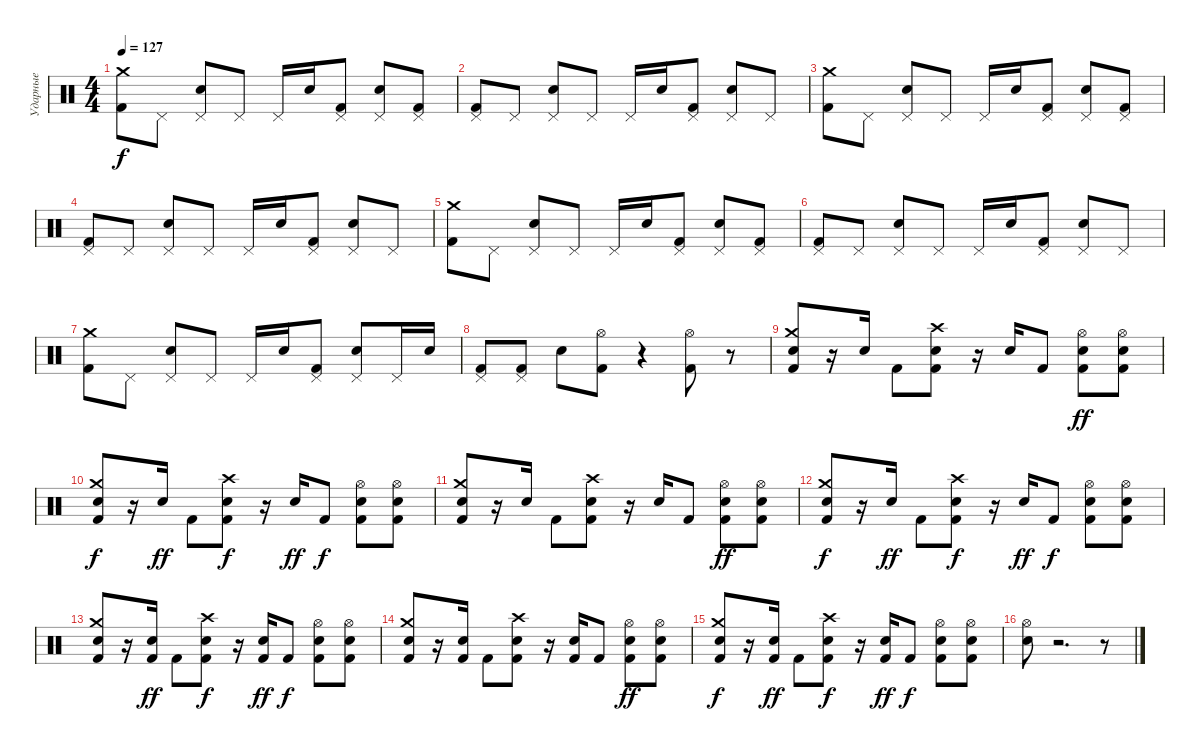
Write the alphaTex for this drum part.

\track ("Ударные" "Ударные") {instrument percussion}
\staff {score}
\articulation defaults
\ts (4 4)
\tempo 127
\clef neutral
\ks c
("Kick (hit) 2" "Crash medium (hit)").8{dy f} "Pedal Hi-Hat (hit)".8 ("Pedal Hi-Hat (hit)" "Electric Snare (hit)").8 "Pedal Hi-Hat (hit)".8 "Pedal Hi-Hat (hit)".16 "Electric Snare (hit)".16 ("Kick (hit) 2" "Pedal Hi-Hat (hit)").8 ("Electric Snare (hit)" "Pedal Hi-Hat (hit)").8 ("Kick (hit) 2" "Pedal Hi-Hat (hit)").8 |
("Kick (hit) 2" "Pedal Hi-Hat (hit)").8 "Pedal Hi-Hat (hit)".8 ("Pedal Hi-Hat (hit)" "Electric Snare (hit)").8 "Pedal Hi-Hat (hit)".8 "Pedal Hi-Hat (hit)".16 "Electric Snare (hit)".16 ("Pedal Hi-Hat (hit)" "Kick (hit) 2").8 ("Pedal Hi-Hat (hit)" "Electric Snare (hit)").8 "Pedal Hi-Hat (hit)".8 |
("Crash medium (hit)" "Kick (hit) 2").8 "Pedal Hi-Hat (hit)".8 ("Electric Snare (hit)" "Pedal Hi-Hat (hit)").8 "Pedal Hi-Hat (hit)".8 "Pedal Hi-Hat (hit)".16 "Electric Snare (hit)".16 ("Pedal Hi-Hat (hit)" "Kick (hit) 2").8 ("Pedal Hi-Hat (hit)" "Electric Snare (hit)").8 ("Pedal Hi-Hat (hit)" "Kick (hit) 2").8 |
("Pedal Hi-Hat (hit)" "Kick (hit) 2").8 "Pedal Hi-Hat (hit)".8 ("Pedal Hi-Hat (hit)" "Electric Snare (hit)").8 "Pedal Hi-Hat (hit)".8 "Pedal Hi-Hat (hit)".16 "Electric Snare (hit)".16 ("Kick (hit) 2" "Pedal Hi-Hat (hit)").8 ("Electric Snare (hit)" "Pedal Hi-Hat (hit)").8 "Pedal Hi-Hat (hit)".8 |
("Crash medium (hit)" "Kick (hit) 2").8 "Pedal Hi-Hat (hit)".8 ("Electric Snare (hit)" "Pedal Hi-Hat (hit)").8 "Pedal Hi-Hat (hit)".8 "Pedal Hi-Hat (hit)".16 "Electric Snare (hit)".16 ("Pedal Hi-Hat (hit)" "Kick (hit) 2").8 ("Pedal Hi-Hat (hit)" "Electric Snare (hit)").8 ("Pedal Hi-Hat (hit)" "Kick (hit) 2").8 |
("Pedal Hi-Hat (hit)" "Kick (hit) 2").8 "Pedal Hi-Hat (hit)".8 ("Pedal Hi-Hat (hit)" "Electric Snare (hit)").8 "Pedal Hi-Hat (hit)".8 "Pedal Hi-Hat (hit)".16 "Electric Snare (hit)".16 ("Pedal Hi-Hat (hit)" "Kick (hit) 2").8 ("Pedal Hi-Hat (hit)" "Electric Snare (hit)").8 "Pedal Hi-Hat (hit)".8 |
("Kick (hit) 2" "Crash medium (hit)").8 "Pedal Hi-Hat (hit)".8 ("Pedal Hi-Hat (hit)" "Electric Snare (hit)").8 "Pedal Hi-Hat (hit)".8 "Pedal Hi-Hat (hit)".16 "Electric Snare (hit)".16 ("Kick (hit) 2" "Pedal Hi-Hat (hit)").8 ("Electric Snare (hit)" "Pedal Hi-Hat (hit)").8 "Pedal Hi-Hat (hit)".16 "Electric Snare (hit)".16 |
("Kick (hit) 2" "Pedal Hi-Hat (hit)").8 ("Pedal Hi-Hat (hit)" "Kick (hit) 2").8 "Electric Snare (hit)".8 ("Kick (hit) 2" "Hi-Hat (open)").8 r.4 ("Hi-Hat (open)" "Kick (hit) 2").8 r.8 |
("Kick (hit) 2" "Electric Snare (hit)" "Crash medium (hit)").8 r.16 "Electric Snare (hit)".16 "Kick (hit) 2".8 ("Crash high (hit)" "Electric Snare (hit)" "Kick (hit) 2").8 r.16 "Electric Snare (hit)".16 "Kick (hit) 2".8 ("Hi-Hat (open)" "Electric Snare (hit)" "Kick (hit) 2").8{dy ff} ("Electric Snare (hit)" "Kick (hit) 2" "Hi-Hat (open)").8 |
("Kick (hit) 2" "Electric Snare (hit)" "Crash medium (hit)").8{dy f} r.16 "Electric Snare (hit)".16{dy ff} "Kick (hit) 2".8 ("Crash high (hit)" "Electric Snare (hit)" "Kick (hit) 2").8{dy f} r.16 "Electric Snare (hit)".16{dy ff} "Kick (hit) 2".8{dy f} ("Hi-Hat (open)" "Electric Snare (hit)" "Kick (hit) 2").8 ("Hi-Hat (open)" "Kick (hit) 2" "Electric Snare (hit)").8 |
("Crash medium (hit)" "Electric Snare (hit)" "Kick (hit) 2").8 r.16 "Electric Snare (hit)".16 "Kick (hit) 2".8 ("Kick (hit) 2" "Electric Snare (hit)" "Crash high (hit)").8 r.16 "Electric Snare (hit)".16 "Kick (hit) 2".8 ("Kick (hit) 2" "Electric Snare (hit)" "Hi-Hat (open)").8{dy ff} ("Electric Snare (hit)" "Kick (hit) 2" "Hi-Hat (open)").8 |
("Kick (hit) 2" "Electric Snare (hit)" "Crash medium (hit)").8{dy f} r.16 "Electric Snare (hit)".16{dy ff} "Kick (hit) 2".8 ("Kick (hit) 2" "Electric Snare (hit)" "Crash high (hit)").8{dy f} r.16 "Electric Snare (hit)".16{dy ff} "Kick (hit) 2".8{dy f} ("Kick (hit) 2" "Electric Snare (hit)" "Hi-Hat (open)").8 ("Electric Snare (hit)" "Kick (hit) 2" "Hi-Hat (open)").8 |
("Crash medium (hit)" "Electric Snare (hit)" "Kick (hit) 2").8 r.16 ("Kick (hit) 2" "Electric Snare (hit)").16{dy ff} "Kick (hit) 2".8 ("Crash high (hit)" "Electric Snare (hit)" "Kick (hit) 2").8{dy f} r.16 ("Kick (hit) 2" "Electric Snare (hit)").16{dy ff} "Kick (hit) 2".8{dy f} ("Hi-Hat (open)" "Electric Snare (hit)" "Kick (hit) 2").8 ("Electric Snare (hit)" "Kick (hit) 2" "Hi-Hat (open)").8 |
("Kick (hit) 2" "Electric Snare (hit)" "Crash medium (hit)").8 r.16 ("Electric Snare (hit)" "Kick (hit) 2").16 "Kick (hit) 2".8 ("Kick (hit) 2" "Electric Snare (hit)" "Crash high (hit)").8 r.16 ("Kick (hit) 2" "Electric Snare (hit)").16 "Kick (hit) 2".8 ("Kick (hit) 2" "Electric Snare (hit)" "Hi-Hat (open)").8{dy ff} ("Hi-Hat (open)" "Electric Snare (hit)" "Kick (hit) 2").8 |
("Crash medium (hit)" "Kick (hit) 2" "Electric Snare (hit)").8{dy f} r.16 ("Kick (hit) 2" "Electric Snare (hit)").16{dy ff} "Kick (hit) 2".8 ("Crash high (hit)" "Electric Snare (hit)" "Kick (hit) 2").8{dy f} r.16 ("Kick (hit) 2" "Electric Snare (hit)").16{dy ff} "Kick (hit) 2".8{dy f} ("Electric Snare (hit)" "Kick (hit) 2" "Hi-Hat (open)").8 ("Hi-Hat (open)" "Electric Snare (hit)" "Kick (hit) 2").8 |
("Hi-Hat (open)" "Electric Snare (hit)").8 r.2{d} r.8
